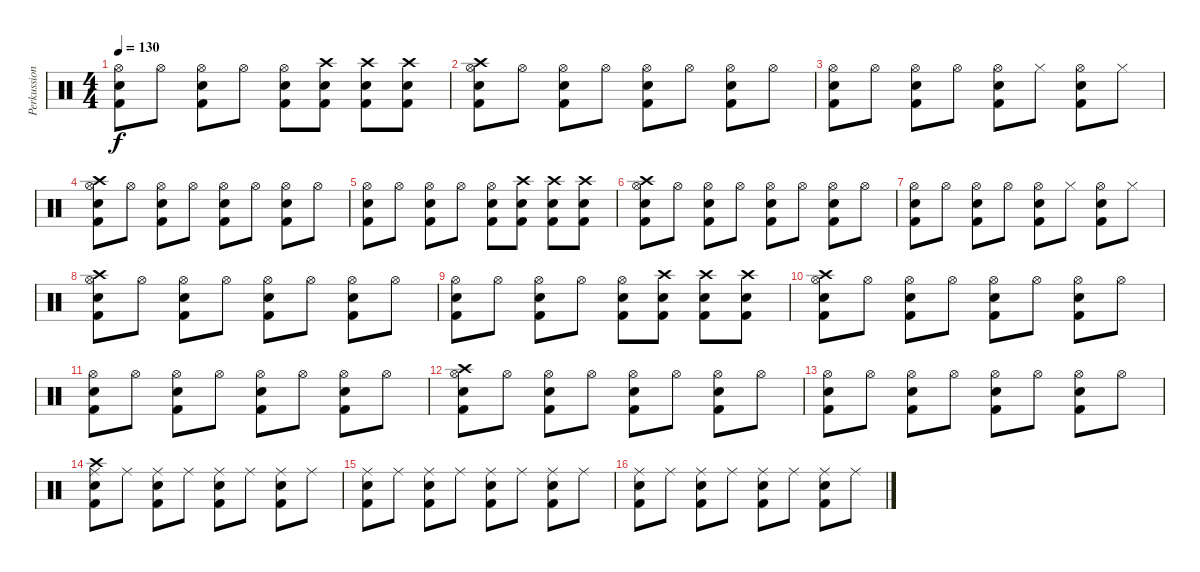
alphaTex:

\track ("Perkussion" "Perkussion") {instrument percussion}
\staff {score}
\articulation defaults
\ts (4 4)
\tempo 130
\clef neutral
\ks c
("Hi-Hat (open)" "Electric Snare (hit)" "Kick (hit) 2").8{dy f} "Hi-Hat (open)".8 ("Hi-Hat (open)" "Electric Snare (hit)" "Kick (hit) 2").8 "Hi-Hat (open)".8 ("Hi-Hat (open)" "Electric Snare (hit)" "Kick (hit) 2").8 ("Crash high (hit)" "Electric Snare (hit)" "Kick (hit) 2").8 ("Crash high (hit)" "Electric Snare (hit)" "Kick (hit) 2").8 ("Crash high (hit)" "Electric Snare (hit)" "Kick (hit) 2").8 |
("Hi-Hat (open)" "Crash high (hit)" "Electric Snare (hit)" "Kick (hit) 2").8 "Hi-Hat (open)".8 ("Hi-Hat (open)" "Electric Snare (hit)" "Kick (hit) 2").8 "Hi-Hat (open)".8 ("Hi-Hat (open)" "Electric Snare (hit)" "Kick (hit) 2").8 "Hi-Hat (open)".8 ("Hi-Hat (open)" "Electric Snare (hit)" "Kick (hit) 2").8 "Hi-Hat (open)".8 |
("Hi-Hat (open)" "Electric Snare (hit)" "Kick (hit) 2").8 "Hi-Hat (open)".8 ("Hi-Hat (open)" "Electric Snare (hit)" "Kick (hit) 2").8 "Hi-Hat (open)".8 ("Hi-Hat (open)" "Electric Snare (hit)" "Kick (hit) 2").8 "Hi-Hat (closed)".8 ("Hi-Hat (open)" "Electric Snare (hit)" "Kick (hit) 2").8 "Hi-Hat (closed)".8 |
("Hi-Hat (open)" "Crash high (hit)" "Electric Snare (hit)" "Kick (hit) 2").8 "Hi-Hat (open)".8 ("Hi-Hat (open)" "Electric Snare (hit)" "Kick (hit) 2").8 "Hi-Hat (open)".8 ("Hi-Hat (open)" "Electric Snare (hit)" "Kick (hit) 2").8 "Hi-Hat (open)".8 ("Hi-Hat (open)" "Electric Snare (hit)" "Kick (hit) 2").8 "Hi-Hat (open)".8 |
("Hi-Hat (open)" "Electric Snare (hit)" "Kick (hit) 2").8 "Hi-Hat (open)".8 ("Hi-Hat (open)" "Electric Snare (hit)" "Kick (hit) 2").8 "Hi-Hat (open)".8 ("Hi-Hat (open)" "Electric Snare (hit)" "Kick (hit) 2").8 ("Crash high (hit)" "Electric Snare (hit)" "Kick (hit) 2").8 ("Crash high (hit)" "Electric Snare (hit)" "Kick (hit) 2").8 ("Crash high (hit)" "Electric Snare (hit)" "Kick (hit) 2").8 |
("Hi-Hat (open)" "Crash high (hit)" "Electric Snare (hit)" "Kick (hit) 2").8 "Hi-Hat (open)".8 ("Hi-Hat (open)" "Electric Snare (hit)" "Kick (hit) 2").8 "Hi-Hat (open)".8 ("Hi-Hat (open)" "Electric Snare (hit)" "Kick (hit) 2").8 "Hi-Hat (open)".8 ("Hi-Hat (open)" "Electric Snare (hit)" "Kick (hit) 2").8 "Hi-Hat (open)".8 |
("Hi-Hat (open)" "Electric Snare (hit)" "Kick (hit) 2").8 "Hi-Hat (open)".8 ("Hi-Hat (open)" "Electric Snare (hit)" "Kick (hit) 2").8 "Hi-Hat (open)".8 ("Hi-Hat (open)" "Electric Snare (hit)" "Kick (hit) 2").8 "Hi-Hat (closed)".8 ("Hi-Hat (open)" "Electric Snare (hit)" "Kick (hit) 2").8 "Hi-Hat (closed)".8 |
("Hi-Hat (open)" "Crash high (hit)" "Electric Snare (hit)" "Kick (hit) 2").8 "Hi-Hat (open)".8 ("Hi-Hat (open)" "Electric Snare (hit)" "Kick (hit) 2").8 "Hi-Hat (open)".8 ("Hi-Hat (open)" "Electric Snare (hit)" "Kick (hit) 2").8 "Hi-Hat (open)".8 ("Hi-Hat (open)" "Electric Snare (hit)" "Kick (hit) 2").8 "Hi-Hat (open)".8 |
("Hi-Hat (open)" "Electric Snare (hit)" "Kick (hit) 2").8 "Hi-Hat (open)".8 ("Hi-Hat (open)" "Electric Snare (hit)" "Kick (hit) 2").8 "Hi-Hat (open)".8 ("Hi-Hat (open)" "Electric Snare (hit)" "Kick (hit) 2").8 ("Crash high (hit)" "Electric Snare (hit)" "Kick (hit) 2").8 ("Crash high (hit)" "Electric Snare (hit)" "Kick (hit) 2").8 ("Crash high (hit)" "Electric Snare (hit)" "Kick (hit) 2").8 |
("Hi-Hat (open)" "Crash high (hit)" "Electric Snare (hit)" "Kick (hit) 2").8 "Hi-Hat (open)".8 ("Hi-Hat (open)" "Electric Snare (hit)" "Kick (hit) 2").8 "Hi-Hat (open)".8 ("Hi-Hat (open)" "Electric Snare (hit)" "Kick (hit) 2").8 "Hi-Hat (open)".8 ("Hi-Hat (open)" "Electric Snare (hit)" "Kick (hit) 2").8 "Hi-Hat (open)".8 |
("Hi-Hat (open)" "Electric Snare (hit)" "Kick (hit) 2").8 "Hi-Hat (open)".8 ("Hi-Hat (open)" "Electric Snare (hit)" "Kick (hit) 2").8 "Hi-Hat (open)".8 ("Hi-Hat (open)" "Electric Snare (hit)" "Kick (hit) 2").8 "Hi-Hat (open)".8 ("Hi-Hat (open)" "Electric Snare (hit)" "Kick (hit) 2").8 "Hi-Hat (open)".8 |
("Hi-Hat (open)" "Crash high (hit)" "Electric Snare (hit)" "Kick (hit) 2").8 "Hi-Hat (open)".8 ("Hi-Hat (open)" "Electric Snare (hit)" "Kick (hit) 2").8 "Hi-Hat (open)".8 ("Hi-Hat (open)" "Electric Snare (hit)" "Kick (hit) 2").8 "Hi-Hat (open)".8 ("Hi-Hat (open)" "Electric Snare (hit)" "Kick (hit) 2").8 "Hi-Hat (open)".8 |
("Hi-Hat (open)" "Electric Snare (hit)" "Kick (hit) 2").8 "Hi-Hat (open)".8 ("Hi-Hat (open)" "Electric Snare (hit)" "Kick (hit) 2").8 "Hi-Hat (open)".8 ("Hi-Hat (open)" "Electric Snare (hit)" "Kick (hit) 2").8 "Hi-Hat (open)".8 ("Hi-Hat (open)" "Electric Snare (hit)" "Kick (hit) 2").8 "Hi-Hat (open)".8 |
("Ride (middle)" "Crash high (hit)" "Electric Snare (hit)" "Kick (hit) 2").8 "Ride (middle)".8 ("Ride (middle)" "Electric Snare (hit)" "Kick (hit) 2").8 "Ride (middle)".8 ("Ride (middle)" "Electric Snare (hit)" "Kick (hit) 2").8 "Ride (middle)".8 ("Ride (middle)" "Electric Snare (hit)" "Kick (hit) 2").8 "Ride (middle)".8 |
("Ride (middle)" "Electric Snare (hit)" "Kick (hit) 2").8 "Ride (middle)".8 ("Ride (middle)" "Electric Snare (hit)" "Kick (hit) 2").8 "Ride (middle)".8 ("Ride (middle)" "Electric Snare (hit)" "Kick (hit) 2").8 "Ride (middle)".8 ("Ride (middle)" "Electric Snare (hit)" "Kick (hit) 2").8 "Ride (middle)".8 |
("Ride (middle)" "Electric Snare (hit)" "Kick (hit) 2").8 "Ride (middle)".8 ("Ride (middle)" "Electric Snare (hit)" "Kick (hit) 2").8 "Ride (middle)".8 ("Ride (middle)" "Electric Snare (hit)" "Kick (hit) 2").8 "Ride (middle)".8 ("Ride (middle)" "Electric Snare (hit)" "Kick (hit) 2").8 "Ride (middle)".8
